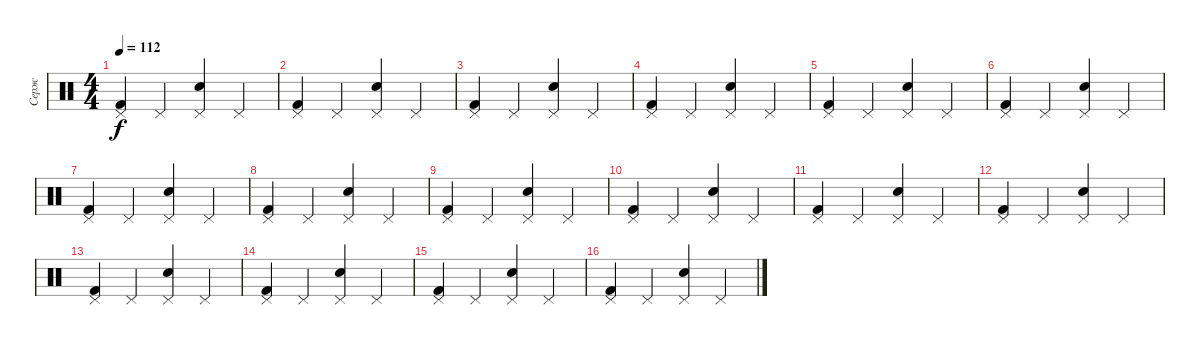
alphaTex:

\track ("Серж" "Серж") {instrument percussion}
\staff {score}
\articulation defaults
\ts (4 4)
\tempo 112
\clef neutral
\ks c
("Pedal Hi-Hat (hit)" "Kick (hit) 2").4{dy f} "Pedal Hi-Hat (hit)".4 ("Pedal Hi-Hat (hit)" "Snare (hit) 2").4 "Pedal Hi-Hat (hit)".4 |
("Pedal Hi-Hat (hit)" "Kick (hit) 2").4 "Pedal Hi-Hat (hit)".4 ("Pedal Hi-Hat (hit)" "Snare (hit) 2").4 "Pedal Hi-Hat (hit)".4 |
("Pedal Hi-Hat (hit)" "Kick (hit) 2").4 "Pedal Hi-Hat (hit)".4 ("Pedal Hi-Hat (hit)" "Snare (hit) 2").4 "Pedal Hi-Hat (hit)".4 |
("Pedal Hi-Hat (hit)" "Kick (hit) 2").4 "Pedal Hi-Hat (hit)".4 ("Pedal Hi-Hat (hit)" "Snare (hit) 2").4 "Pedal Hi-Hat (hit)".4 |
("Pedal Hi-Hat (hit)" "Kick (hit) 2").4 "Pedal Hi-Hat (hit)".4 ("Pedal Hi-Hat (hit)" "Snare (hit) 2").4 "Pedal Hi-Hat (hit)".4 |
("Pedal Hi-Hat (hit)" "Kick (hit) 2").4 "Pedal Hi-Hat (hit)".4 ("Pedal Hi-Hat (hit)" "Snare (hit) 2").4 "Pedal Hi-Hat (hit)".4 |
("Pedal Hi-Hat (hit)" "Kick (hit) 2").4 "Pedal Hi-Hat (hit)".4 ("Pedal Hi-Hat (hit)" "Snare (hit) 2").4 "Pedal Hi-Hat (hit)".4 |
("Pedal Hi-Hat (hit)" "Kick (hit) 2").4 "Pedal Hi-Hat (hit)".4 ("Pedal Hi-Hat (hit)" "Snare (hit) 2").4 "Pedal Hi-Hat (hit)".4 |
("Pedal Hi-Hat (hit)" "Kick (hit) 2").4 "Pedal Hi-Hat (hit)".4 ("Pedal Hi-Hat (hit)" "Snare (hit) 2").4 "Pedal Hi-Hat (hit)".4 |
("Pedal Hi-Hat (hit)" "Kick (hit) 2").4 "Pedal Hi-Hat (hit)".4 ("Pedal Hi-Hat (hit)" "Snare (hit) 2").4 "Pedal Hi-Hat (hit)".4 |
("Pedal Hi-Hat (hit)" "Kick (hit) 2").4 "Pedal Hi-Hat (hit)".4 ("Pedal Hi-Hat (hit)" "Snare (hit) 2").4 "Pedal Hi-Hat (hit)".4 |
("Pedal Hi-Hat (hit)" "Kick (hit) 2").4 "Pedal Hi-Hat (hit)".4 ("Pedal Hi-Hat (hit)" "Snare (hit) 2").4 "Pedal Hi-Hat (hit)".4 |
("Pedal Hi-Hat (hit)" "Kick (hit) 2").4 "Pedal Hi-Hat (hit)".4 ("Pedal Hi-Hat (hit)" "Snare (hit) 2").4 "Pedal Hi-Hat (hit)".4 |
("Pedal Hi-Hat (hit)" "Kick (hit) 2").4 "Pedal Hi-Hat (hit)".4 ("Pedal Hi-Hat (hit)" "Snare (hit) 2").4 "Pedal Hi-Hat (hit)".4 |
("Pedal Hi-Hat (hit)" "Kick (hit) 2").4 "Pedal Hi-Hat (hit)".4 ("Pedal Hi-Hat (hit)" "Snare (hit) 2").4 "Pedal Hi-Hat (hit)".4 |
("Pedal Hi-Hat (hit)" "Kick (hit) 2").4 "Pedal Hi-Hat (hit)".4 ("Pedal Hi-Hat (hit)" "Snare (hit) 2").4 "Pedal Hi-Hat (hit)".4
